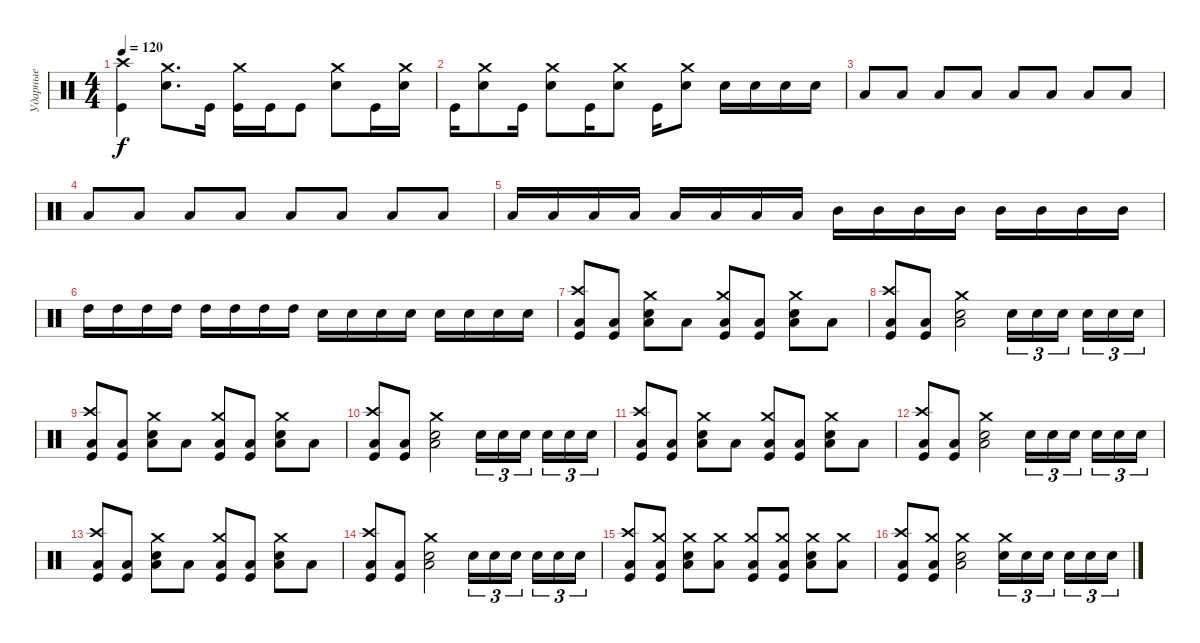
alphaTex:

\track ("Ударные" "Ударные") {instrument percussion}
\staff {score}
\articulation defaults
\ts (4 4)
\tempo 120
\clef neutral
\ks c
("Kick (hit)" "Crash high (hit)").4{dy f} ("Snare (hit) 2" "Crash medium (hit)").8{d} "Kick (hit)".16 ("Kick (hit)" "Crash medium (hit)").16 "Kick (hit)".16 "Kick (hit)".8 ("Snare (hit) 2" "Crash medium (hit)").8 "Kick (hit)".16 ("Snare (hit) 2" "Crash medium (hit)").16 |
"Kick (hit)".16 ("Snare (hit) 2" "Crash medium (hit)").8 "Kick (hit)".16 ("Snare (hit) 2" "Crash medium (hit)").8 "Kick (hit)".16 ("Snare (hit) 2" "Crash medium (hit)").8 "Kick (hit)".16 ("Snare (hit) 2" "Crash medium (hit)").8 "Snare (hit) 2".16 "Snare (hit) 2".16 "Snare (hit) 2".16 "Snare (hit) 2".16 |
"Low Tom (hit)".8 "Low Tom (hit)".8 "Low Tom (hit)".8 "Low Tom (hit)".8 "Low Tom (hit)".8 "Low Tom (hit)".8 "Low Tom (hit)".8 "Low Tom (hit)".8 |
"Low Tom (hit)".8 "Low Tom (hit)".8 "Low Tom (hit)".8 "Low Tom (hit)".8 "Low Tom (hit)".8 "Low Tom (hit)".8 "Low Tom (hit)".8 "Low Tom (hit)".8 |
"Low Tom (hit)".16 "Low Tom (hit)".16 "Low Tom (hit)".16 "Low Tom (hit)".16 "Low Tom (hit)".16 "Low Tom (hit)".16 "Low Tom (hit)".16 "Low Tom (hit)".16 "Mid Tom (hit)".16 "Mid Tom (hit)".16 "Mid Tom (hit)".16 "Mid Tom (hit)".16 "Mid Tom (hit)".16 "Mid Tom (hit)".16 "Mid Tom (hit)".16 "Mid Tom (hit)".16 |
"High Tom (hit)".16 "High Tom (hit)".16 "High Tom (hit)".16 "High Tom (hit)".16 "High Tom (hit)".16 "High Tom (hit)".16 "High Tom (hit)".16 "High Tom (hit)".16 "Snare (hit) 2".16 "Snare (hit) 2".16 "Snare (hit) 2".16 "Snare (hit) 2".16 "Snare (hit) 2".16 "Snare (hit) 2".16 "Snare (hit) 2".16 "Snare (hit) 2".16 |
("Low Tom (hit)" "Kick (hit)" "Crash high (hit)").8 ("Low Tom (hit)" "Kick (hit)").8 ("Low Tom (hit)" "Snare (hit) 2" "Crash medium (hit)").8 "Low Tom (hit)".8 ("Low Tom (hit)" "Kick (hit)" "Crash medium (hit)").8 ("Low Tom (hit)" "Kick (hit)").8 ("Low Tom (hit)" "Snare (hit) 2" "Crash medium (hit)").8 "Low Tom (hit)".8 |
("Low Tom (hit)" "Kick (hit)" "Crash high (hit)").8 ("Low Tom (hit)" "Kick (hit)").8 ("Low Tom (hit)" "Snare (hit) 2" "Crash medium (hit)").2 "Snare (hit) 2".16{tu (3 2)} "Snare (hit) 2".16{tu (3 2)} "Snare (hit) 2".16{tu (3 2) beam splitsecondary} "Snare (hit) 2".16{tu (3 2)} "Snare (hit) 2".16{tu (3 2)} "Snare (hit) 2".16{tu (3 2)} |
("Low Tom (hit)" "Kick (hit)" "Crash high (hit)").8 ("Low Tom (hit)" "Kick (hit)").8 ("Low Tom (hit)" "Snare (hit) 2" "Crash medium (hit)").8 "Low Tom (hit)".8 ("Low Tom (hit)" "Kick (hit)" "Crash medium (hit)").8 ("Low Tom (hit)" "Kick (hit)").8 ("Low Tom (hit)" "Snare (hit) 2" "Crash medium (hit)").8 "Low Tom (hit)".8 |
("Low Tom (hit)" "Kick (hit)" "Crash high (hit)").8 ("Low Tom (hit)" "Kick (hit)").8 ("Low Tom (hit)" "Snare (hit) 2" "Crash medium (hit)").2 "Snare (hit) 2".16{tu (3 2)} "Snare (hit) 2".16{tu (3 2)} "Snare (hit) 2".16{tu (3 2) beam splitsecondary} "Snare (hit) 2".16{tu (3 2)} "Snare (hit) 2".16{tu (3 2)} "Snare (hit) 2".16{tu (3 2)} |
("Low Tom (hit)" "Kick (hit)" "Crash high (hit)").8 ("Low Tom (hit)" "Kick (hit)").8 ("Low Tom (hit)" "Snare (hit) 2" "Crash medium (hit)").8 "Low Tom (hit)".8 ("Low Tom (hit)" "Kick (hit)" "Crash medium (hit)").8 ("Low Tom (hit)" "Kick (hit)").8 ("Low Tom (hit)" "Snare (hit) 2" "Crash medium (hit)").8 "Low Tom (hit)".8 |
("Low Tom (hit)" "Kick (hit)" "Crash high (hit)").8 ("Low Tom (hit)" "Kick (hit)").8 ("Low Tom (hit)" "Snare (hit) 2" "Crash medium (hit)").2 "Snare (hit) 2".16{tu (3 2)} "Snare (hit) 2".16{tu (3 2)} "Snare (hit) 2".16{tu (3 2) beam splitsecondary} "Snare (hit) 2".16{tu (3 2)} "Snare (hit) 2".16{tu (3 2)} "Snare (hit) 2".16{tu (3 2)} |
("Low Tom (hit)" "Kick (hit)" "Crash high (hit)").8 ("Low Tom (hit)" "Kick (hit)").8 ("Low Tom (hit)" "Snare (hit) 2" "Crash medium (hit)").8 "Low Tom (hit)".8 ("Low Tom (hit)" "Kick (hit)" "Crash medium (hit)").8 ("Low Tom (hit)" "Kick (hit)").8 ("Low Tom (hit)" "Snare (hit) 2" "Crash medium (hit)").8 "Low Tom (hit)".8 |
("Low Tom (hit)" "Kick (hit)" "Crash high (hit)").8 ("Low Tom (hit)" "Kick (hit)").8 ("Low Tom (hit)" "Snare (hit) 2" "Crash medium (hit)").2 "Snare (hit) 2".16{tu (3 2)} "Snare (hit) 2".16{tu (3 2)} "Snare (hit) 2".16{tu (3 2) beam splitsecondary} "Snare (hit) 2".16{tu (3 2)} "Snare (hit) 2".16{tu (3 2)} "Snare (hit) 2".16{tu (3 2)} |
("Low Tom (hit)" "Kick (hit)" "Crash high (hit)").8 ("Low Tom (hit)" "Kick (hit)" "Crash medium (hit)").8 ("Low Tom (hit)" "Snare (hit) 2" "Crash medium (hit)").8 ("Low Tom (hit)" "Crash medium (hit)").8 ("Low Tom (hit)" "Kick (hit)" "Crash medium (hit)").8 ("Low Tom (hit)" "Kick (hit)" "Crash medium (hit)").8 ("Low Tom (hit)" "Snare (hit) 2" "Crash medium (hit)").8 ("Low Tom (hit)" "Crash medium (hit)").8 |
("Low Tom (hit)" "Kick (hit)" "Crash high (hit)").8 ("Low Tom (hit)" "Kick (hit)" "Crash medium (hit)").8 ("Low Tom (hit)" "Snare (hit) 2" "Crash medium (hit)").2 ("Snare (hit) 2" "Crash medium (hit)").16{tu (3 2)} "Snare (hit) 2".16{tu (3 2)} "Snare (hit) 2".16{tu (3 2) beam splitsecondary} "Snare (hit) 2".16{tu (3 2)} "Snare (hit) 2".16{tu (3 2)} "Snare (hit) 2".16{tu (3 2)}
